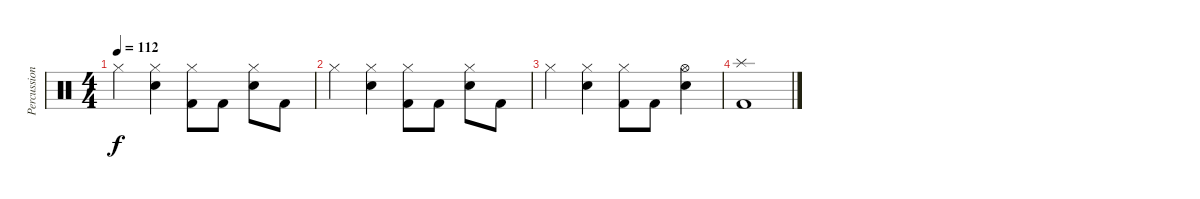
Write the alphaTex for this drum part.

\track ("Percussions" "Percussion") {instrument percussion}
\staff {score}
\articulation defaults
\ts (4 4)
\tempo 112
\clef neutral
\ks c "Hi-Hat (closed)".4{dy f}
("Hi-Hat (closed)" "Snare (hit) 2").4 ("Hi-Hat (closed)" "Kick (hit) 2").8 "Kick (hit) 2".8 ("Hi-Hat (closed)" "Snare (hit) 2").8 "Kick (hit) 2".8 |
"Hi-Hat (closed)".4 ("Hi-Hat (closed)" "Snare (hit) 2").4 ("Hi-Hat (closed)" "Kick (hit) 2").8 "Kick (hit) 2".8 ("Hi-Hat (closed)" "Snare (hit) 2").8 "Kick (hit) 2".8 |
"Hi-Hat (closed)".4 ("Hi-Hat (closed)" "Snare (hit) 2").4 ("Hi-Hat (closed)" "Kick (hit) 2").8 "Kick (hit) 2".8 ("Hi-Hat (open)" "Snare (hit) 2").4 |
("Splash (hit)" "Kick (hit) 2").1
